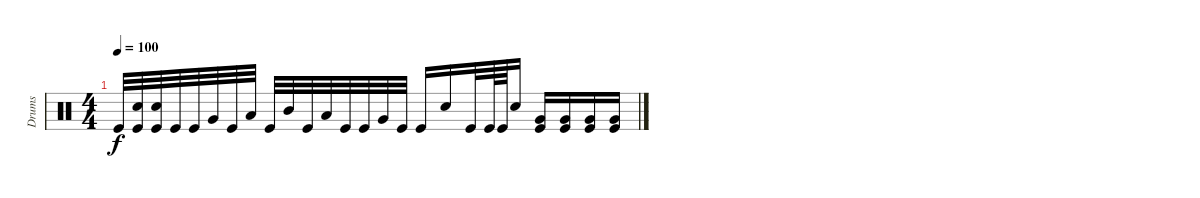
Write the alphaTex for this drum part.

\track ("Drums" "Drums") {instrument percussion}
\staff {score}
\articulation defaults
\ts (4 4)
\tempo 100
\clef neutral
\ks c "Kick (hit)".32{dy f}
("Electric Snare (hit)" "Kick (hit)").32 ("Electric Snare (hit)" "Kick (hit)").32 "Kick (hit)".32 "Kick (hit)".32 "Very Low Tom (hit)".32 "Kick (hit)".32 "Low Tom (hit)".32 "Kick (hit)".32 "Mid Tom (hit)".32 "Kick (hit)".32 "Low Tom (hit)".32 "Kick (hit)".32 "Kick (hit)".32 "Very Low Tom (hit)".32 "Kick (hit)".32 "Kick (hit)".16 "Electric Snare (hit)".16 "Kick (hit)".32 "Kick (hit)".64 "Kick (hit)".64 "Electric Snare (hit)".16 ("Very Low Tom (hit)" "Kick (hit)").16 ("Very Low Tom (hit)" "Kick (hit)").16 ("Very Low Tom (hit)" "Kick (hit)").16 ("Very Low Tom (hit)" "Kick (hit)").16
